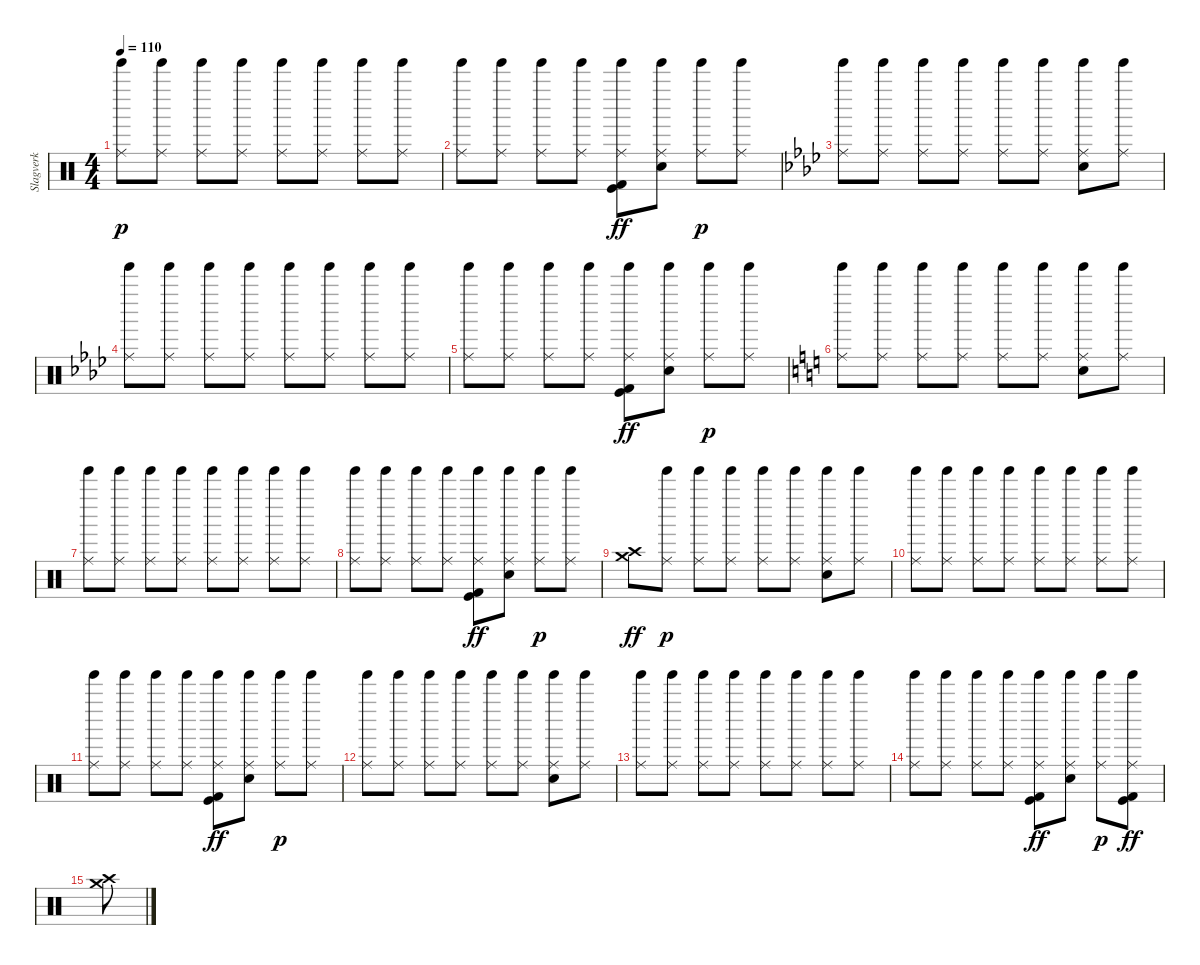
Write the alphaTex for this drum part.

\track ("Slagverk" "Slagverk") {instrument percussion}
\staff {score}
\articulation defaults
\ts (4 4)
\tempo 110
\clef neutral
\ks c
("Tinkle Bell (hit)" "Ride (middle)").8{dy p} ("Tinkle Bell (hit)" "Ride (middle)").8 ("Tinkle Bell (hit)" "Ride (middle)").8 ("Tinkle Bell (hit)" "Ride (middle)").8 ("Tinkle Bell (hit)" "Ride (middle)").8 ("Tinkle Bell (hit)" "Ride (middle)").8 ("Tinkle Bell (hit)" "Ride (middle)").8 ("Tinkle Bell (hit)" "Ride (middle)").8 |
("Tinkle Bell (hit)" "Ride (middle)").8 ("Tinkle Bell (hit)" "Ride (middle)").8 ("Tinkle Bell (hit)" "Ride (middle)").8 ("Tinkle Bell (hit)" "Ride (middle)").8 ("Tinkle Bell (hit)" "Ride (middle)" "Kick (hit) 2" "Kick (hit)").8{dy ff} ("Tinkle Bell (hit)" "Ride (middle)" "Electric Snare (hit)").8 ("Tinkle Bell (hit)" "Ride (middle)").8{dy p} ("Tinkle Bell (hit)" "Ride (middle)").8 |
\ks ab
("Tinkle Bell (hit)" "Ride (middle)").8 ("Tinkle Bell (hit)" "Ride (middle)").8 ("Tinkle Bell (hit)" "Ride (middle)").8 ("Tinkle Bell (hit)" "Ride (middle)").8 ("Tinkle Bell (hit)" "Ride (middle)").8 ("Tinkle Bell (hit)" "Ride (middle)").8 ("Tinkle Bell (hit)" "Ride (middle)" "Electric Snare (hit)").8 ("Tinkle Bell (hit)" "Ride (middle)").8 |
("Tinkle Bell (hit)" "Ride (middle)").8 ("Tinkle Bell (hit)" "Ride (middle)").8 ("Tinkle Bell (hit)" "Ride (middle)").8 ("Tinkle Bell (hit)" "Ride (middle)").8 ("Tinkle Bell (hit)" "Ride (middle)").8 ("Tinkle Bell (hit)" "Ride (middle)").8 ("Tinkle Bell (hit)" "Ride (middle)").8 ("Tinkle Bell (hit)" "Ride (middle)").8 |
("Tinkle Bell (hit)" "Ride (middle)").8 ("Tinkle Bell (hit)" "Ride (middle)").8 ("Tinkle Bell (hit)" "Ride (middle)").8 ("Tinkle Bell (hit)" "Ride (middle)").8 ("Tinkle Bell (hit)" "Ride (middle)" "Kick (hit) 2" "Kick (hit)").8{dy ff} ("Tinkle Bell (hit)" "Ride (middle)" "Electric Snare (hit)").8 ("Tinkle Bell (hit)" "Ride (middle)").8{dy p} ("Tinkle Bell (hit)" "Ride (middle)").8 |
\ks c
("Tinkle Bell (hit)" "Ride (middle)").8 ("Tinkle Bell (hit)" "Ride (middle)").8 ("Tinkle Bell (hit)" "Ride (middle)").8 ("Tinkle Bell (hit)" "Ride (middle)").8 ("Tinkle Bell (hit)" "Ride (middle)").8 ("Tinkle Bell (hit)" "Ride (middle)").8 ("Tinkle Bell (hit)" "Ride (middle)" "Electric Snare (hit)").8 ("Tinkle Bell (hit)" "Ride (middle)").8 |
("Tinkle Bell (hit)" "Ride (middle)").8 ("Tinkle Bell (hit)" "Ride (middle)").8 ("Tinkle Bell (hit)" "Ride (middle)").8 ("Tinkle Bell (hit)" "Ride (middle)").8 ("Tinkle Bell (hit)" "Ride (middle)").8 ("Tinkle Bell (hit)" "Ride (middle)").8 ("Tinkle Bell (hit)" "Ride (middle)").8 ("Tinkle Bell (hit)" "Ride (middle)").8 |
("Tinkle Bell (hit)" "Ride (middle)").8 ("Tinkle Bell (hit)" "Ride (middle)").8 ("Tinkle Bell (hit)" "Ride (middle)").8 ("Tinkle Bell (hit)" "Ride (middle)").8 ("Tinkle Bell (hit)" "Ride (middle)" "Kick (hit) 2" "Kick (hit)").8{dy ff} ("Tinkle Bell (hit)" "Ride (middle)" "Electric Snare (hit)").8 ("Tinkle Bell (hit)" "Ride (middle)").8{dy p} ("Tinkle Bell (hit)" "Ride (middle)").8 |
("Crash high (hit)" "Crash medium (hit)").8{dy ff} ("Tinkle Bell (hit)" "Ride (middle)").8{dy p} ("Tinkle Bell (hit)" "Ride (middle)").8 ("Tinkle Bell (hit)" "Ride (middle)").8 ("Tinkle Bell (hit)" "Ride (middle)").8 ("Tinkle Bell (hit)" "Ride (middle)").8 ("Tinkle Bell (hit)" "Ride (middle)" "Electric Snare (hit)").8 ("Tinkle Bell (hit)" "Ride (middle)").8 |
("Tinkle Bell (hit)" "Ride (middle)").8 ("Tinkle Bell (hit)" "Ride (middle)").8 ("Tinkle Bell (hit)" "Ride (middle)").8 ("Tinkle Bell (hit)" "Ride (middle)").8 ("Tinkle Bell (hit)" "Ride (middle)").8 ("Tinkle Bell (hit)" "Ride (middle)").8 ("Tinkle Bell (hit)" "Ride (middle)").8 ("Tinkle Bell (hit)" "Ride (middle)").8 |
("Tinkle Bell (hit)" "Ride (middle)").8 ("Tinkle Bell (hit)" "Ride (middle)").8 ("Tinkle Bell (hit)" "Ride (middle)").8 ("Tinkle Bell (hit)" "Ride (middle)").8 ("Tinkle Bell (hit)" "Ride (middle)" "Kick (hit) 2" "Kick (hit)").8{dy ff} ("Tinkle Bell (hit)" "Ride (middle)" "Electric Snare (hit)").8 ("Tinkle Bell (hit)" "Ride (middle)").8{dy p} ("Tinkle Bell (hit)" "Ride (middle)").8 |
("Tinkle Bell (hit)" "Ride (middle)").8 ("Tinkle Bell (hit)" "Ride (middle)").8 ("Tinkle Bell (hit)" "Ride (middle)").8 ("Tinkle Bell (hit)" "Ride (middle)").8 ("Tinkle Bell (hit)" "Ride (middle)").8 ("Tinkle Bell (hit)" "Ride (middle)").8 ("Tinkle Bell (hit)" "Ride (middle)" "Electric Snare (hit)").8 ("Tinkle Bell (hit)" "Ride (middle)").8 |
("Tinkle Bell (hit)" "Ride (middle)").8 ("Tinkle Bell (hit)" "Ride (middle)").8 ("Tinkle Bell (hit)" "Ride (middle)").8 ("Tinkle Bell (hit)" "Ride (middle)").8 ("Tinkle Bell (hit)" "Ride (middle)").8 ("Tinkle Bell (hit)" "Ride (middle)").8 ("Tinkle Bell (hit)" "Ride (middle)").8 ("Tinkle Bell (hit)" "Ride (middle)").8 |
("Tinkle Bell (hit)" "Ride (middle)").8 ("Tinkle Bell (hit)" "Ride (middle)").8 ("Tinkle Bell (hit)" "Ride (middle)").8 ("Tinkle Bell (hit)" "Ride (middle)").8 ("Tinkle Bell (hit)" "Ride (middle)" "Kick (hit) 2" "Kick (hit)").8{dy ff} ("Tinkle Bell (hit)" "Ride (middle)" "Electric Snare (hit)").8 ("Tinkle Bell (hit)" "Ride (middle)").8{dy p} ("Tinkle Bell (hit)" "Ride (middle)" "Kick (hit) 2" "Kick (hit)").8{dy ff} |
("Crash high (hit)" "Crash medium (hit)").8
